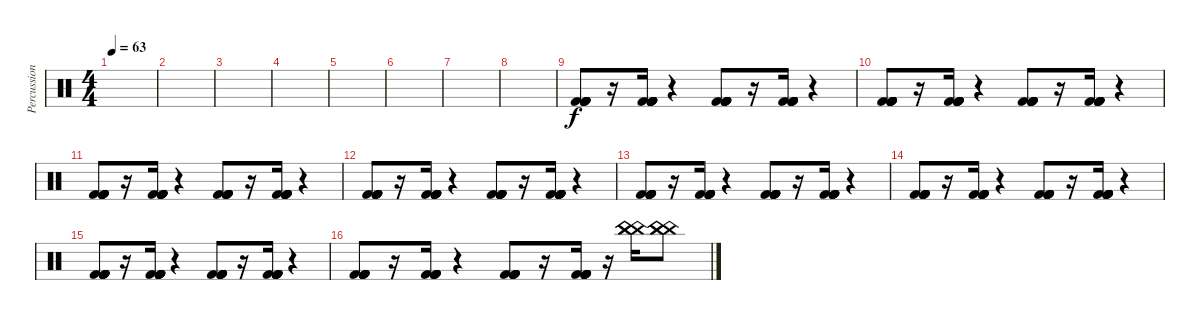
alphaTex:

\track ("Percussion" "Percussion") {instrument percussion}
\staff {score}
\articulation defaults
\ts (4 4)
\tempo 63
\clef neutral
\ks c
|
|
|
|
|
|
|
|
("Kick (hit) 2" "Kick (hit) 2" "Kick (hit) 2" "Kick (hit) 2" "Kick (hit) 2" "Kick (hit) 2").8 r.16 ("Kick (hit) 2" "Kick (hit) 2" "Kick (hit) 2" "Kick (hit) 2" "Kick (hit) 2" "Kick (hit) 2").16 r.4 ("Kick (hit) 2" "Kick (hit) 2" "Kick (hit) 2" "Kick (hit) 2" "Kick (hit) 2" "Kick (hit) 2").8 r.16 ("Kick (hit) 2" "Kick (hit) 2" "Kick (hit) 2" "Kick (hit) 2" "Kick (hit) 2" "Kick (hit) 2").16 r.4 |
("Kick (hit) 2" "Kick (hit) 2" "Kick (hit) 2" "Kick (hit) 2" "Kick (hit) 2" "Kick (hit) 2").8 r.16 ("Kick (hit) 2" "Kick (hit) 2" "Kick (hit) 2" "Kick (hit) 2" "Kick (hit) 2" "Kick (hit) 2").16 r.4 ("Kick (hit) 2" "Kick (hit) 2" "Kick (hit) 2" "Kick (hit) 2" "Kick (hit) 2" "Kick (hit) 2").8 r.16 ("Kick (hit) 2" "Kick (hit) 2" "Kick (hit) 2" "Kick (hit) 2" "Kick (hit) 2" "Kick (hit) 2").16 r.4 |
("Kick (hit) 2" "Kick (hit) 2" "Kick (hit) 2" "Kick (hit) 2" "Kick (hit) 2" "Kick (hit) 2").8 r.16 ("Kick (hit) 2" "Kick (hit) 2" "Kick (hit) 2" "Kick (hit) 2" "Kick (hit) 2" "Kick (hit) 2").16 r.4 ("Kick (hit) 2" "Kick (hit) 2" "Kick (hit) 2" "Kick (hit) 2" "Kick (hit) 2" "Kick (hit) 2").8 r.16 ("Kick (hit) 2" "Kick (hit) 2" "Kick (hit) 2" "Kick (hit) 2" "Kick (hit) 2" "Kick (hit) 2").16 r.4 |
("Kick (hit) 2" "Kick (hit) 2" "Kick (hit) 2" "Kick (hit) 2" "Kick (hit) 2" "Kick (hit) 2").8 r.16 ("Kick (hit) 2" "Kick (hit) 2" "Kick (hit) 2" "Kick (hit) 2" "Kick (hit) 2" "Kick (hit) 2").16 r.4 ("Kick (hit) 2" "Kick (hit) 2" "Kick (hit) 2" "Kick (hit) 2" "Kick (hit) 2" "Kick (hit) 2").8 r.16 ("Kick (hit) 2" "Kick (hit) 2" "Kick (hit) 2" "Kick (hit) 2" "Kick (hit) 2" "Kick (hit) 2").16 r.4 |
("Kick (hit) 2" "Kick (hit) 2" "Kick (hit) 2" "Kick (hit) 2" "Kick (hit) 2" "Kick (hit) 2").8 r.16 ("Kick (hit) 2" "Kick (hit) 2" "Kick (hit) 2" "Kick (hit) 2" "Kick (hit) 2" "Kick (hit) 2").16 r.4 ("Kick (hit) 2" "Kick (hit) 2" "Kick (hit) 2" "Kick (hit) 2" "Kick (hit) 2" "Kick (hit) 2").8 r.16 ("Kick (hit) 2" "Kick (hit) 2" "Kick (hit) 2" "Kick (hit) 2" "Kick (hit) 2" "Kick (hit) 2").16 r.4 |
("Kick (hit) 2" "Kick (hit) 2" "Kick (hit) 2" "Kick (hit) 2" "Kick (hit) 2" "Kick (hit) 2").8 r.16 ("Kick (hit) 2" "Kick (hit) 2" "Kick (hit) 2" "Kick (hit) 2" "Kick (hit) 2" "Kick (hit) 2").16 r.4 ("Kick (hit) 2" "Kick (hit) 2" "Kick (hit) 2" "Kick (hit) 2" "Kick (hit) 2" "Kick (hit) 2").8 r.16 ("Kick (hit) 2" "Kick (hit) 2" "Kick (hit) 2" "Kick (hit) 2" "Kick (hit) 2" "Kick (hit) 2").16 r.4 |
("Kick (hit) 2" "Kick (hit) 2" "Kick (hit) 2" "Kick (hit) 2" "Kick (hit) 2" "Kick (hit) 2").8 r.16 ("Kick (hit) 2" "Kick (hit) 2" "Kick (hit) 2" "Kick (hit) 2" "Kick (hit) 2" "Kick (hit) 2").16 r.4 ("Kick (hit) 2" "Kick (hit) 2" "Kick (hit) 2" "Kick (hit) 2" "Kick (hit) 2" "Kick (hit) 2").8 r.16 ("Kick (hit) 2" "Kick (hit) 2" "Kick (hit) 2" "Kick (hit) 2" "Kick (hit) 2" "Kick (hit) 2").16 r.4 |
("Kick (hit) 2" "Kick (hit) 2" "Kick (hit) 2" "Kick (hit) 2" "Kick (hit) 2" "Kick (hit) 2").8 r.16 ("Kick (hit) 2" "Kick (hit) 2" "Kick (hit) 2" "Kick (hit) 2" "Kick (hit) 2" "Kick (hit) 2").16 r.4 ("Kick (hit) 2" "Kick (hit) 2" "Kick (hit) 2" "Kick (hit) 2" "Kick (hit) 2" "Kick (hit) 2").8 r.16 ("Kick (hit) 2" "Kick (hit) 2" "Kick (hit) 2" "Kick (hit) 2" "Kick (hit) 2" "Kick (hit) 2").16 r.16 ("China (hit)" "China (hit)" "China (hit)").16 ("China (hit)" "China (hit)" "China (hit)").8
